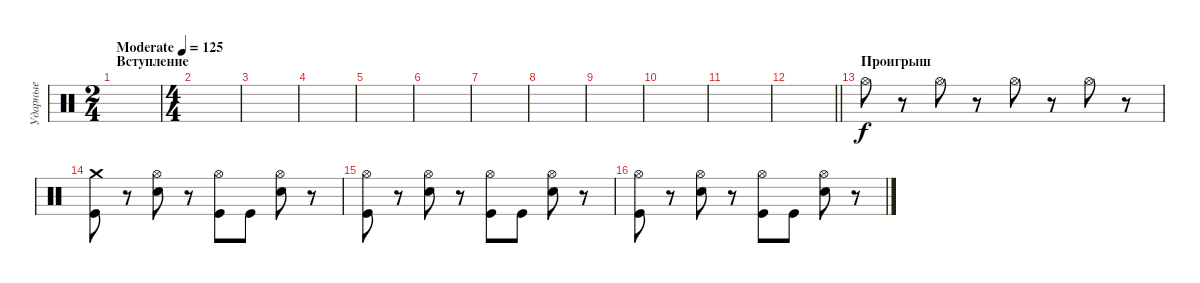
\track ("Ударные" "Ударные") {instrument percussion}
\staff {score}
\articulation defaults
\ts (2 4)
\section ("" "Вступление")
\tempo (125 "Moderate")
\clef neutral
\ks c
|
\ts (4 4)
|
|
|
|
|
|
|
|
|
|
\barLineRight lightlight
|
\section ("" "Проигрыш")
"Hi-Hat (open)".8 r.8 "Hi-Hat (open)".8 r.8 "Hi-Hat (open)".8 r.8 "Hi-Hat (open)".8 r.8 |
("Crash medium (hit)" "Kick (hit)").8 r.8 ("Hi-Hat (open)" "Electric Snare (hit)").8 r.8 ("Hi-Hat (open)" "Kick (hit)").8 "Kick (hit)".8 ("Hi-Hat (open)" "Electric Snare (hit)").8 r.8 |
("Hi-Hat (open)" "Kick (hit)").8 r.8 ("Hi-Hat (open)" "Electric Snare (hit)").8 r.8 ("Hi-Hat (open)" "Kick (hit)").8 "Kick (hit)".8 ("Hi-Hat (open)" "Electric Snare (hit)").8 r.8 |
("Hi-Hat (open)" "Kick (hit)").8 r.8 ("Hi-Hat (open)" "Electric Snare (hit)").8 r.8 ("Hi-Hat (open)" "Kick (hit)").8 "Kick (hit)".8 ("Hi-Hat (open)" "Electric Snare (hit)").8 r.8
